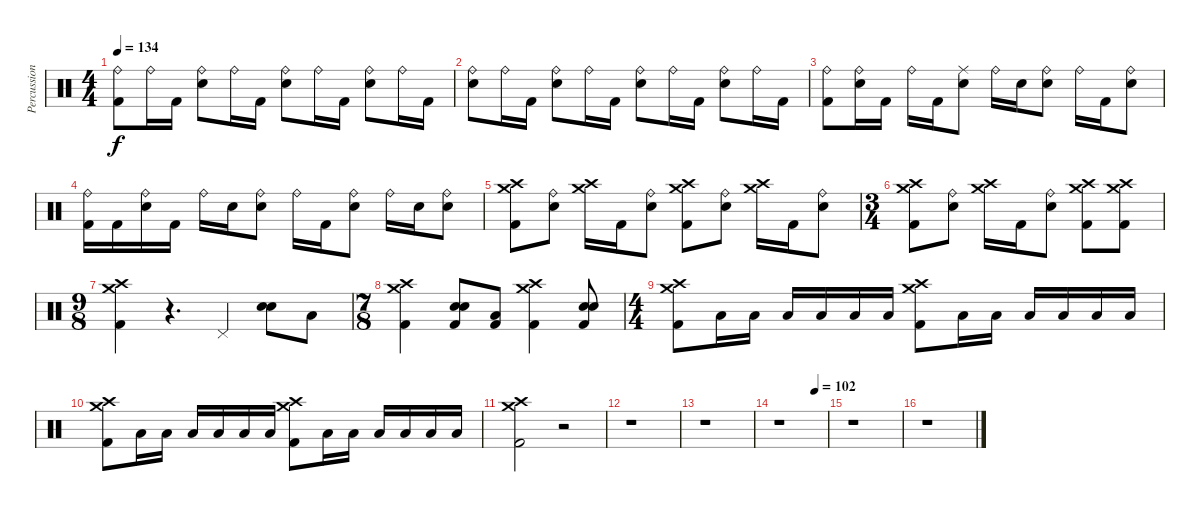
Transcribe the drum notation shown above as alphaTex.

\track ("Percussion" "Percussion") {instrument percussion}
\staff {score}
\articulation defaults
\ts (4 4)
\tempo 134
\clef neutral
\ks c
("Ride (bell)" "Kick (hit) 2").8{dy f} "Ride (bell)".16 "Kick (hit) 2".16 ("Ride (bell)" "Snare (hit) 2").8 "Ride (bell)".16 "Kick (hit) 2".16 ("Ride (bell)" "Snare (hit) 2").8 "Ride (bell)".16 "Kick (hit) 2".16 ("Ride (bell)" "Snare (hit) 2").8 "Ride (bell)".16 "Kick (hit) 2".16 |
("Ride (bell)" "Snare (hit) 2").8 "Ride (bell)".16 "Kick (hit) 2".16 ("Ride (bell)" "Snare (hit) 2").8 "Ride (bell)".16 "Kick (hit) 2".16 ("Ride (bell)" "Snare (hit) 2").8 "Ride (bell)".16 "Kick (hit) 2".16 ("Ride (bell)" "Snare (hit) 2").8 "Ride (bell)".16 "Kick (hit) 2".16 |
("Ride (bell)" "Kick (hit) 2").8 ("Ride (bell)" "Snare (hit) 2").16 "Kick (hit) 2".16 "Ride (bell)".16 "Kick (hit) 2".16 ("Ride (middle)" "Snare (hit) 2").8 "Ride (bell)".16 "Snare (hit) 2".16 ("Ride (bell)" "Snare (hit) 2").8 "Ride (bell)".16 "Kick (hit) 2".16 ("Ride (bell)" "Snare (hit) 2").8 |
("Ride (bell)" "Kick (hit) 2").16 "Kick (hit) 2".16 ("Ride (bell)" "Snare (hit) 2").16 "Kick (hit) 2".16 "Ride (bell)".16 "Snare (hit) 2".16 ("Ride (bell)" "Snare (hit) 2").8 "Ride (bell)".16 "Kick (hit) 2".16 ("Ride (bell)" "Snare (hit) 2").8 "Ride (bell)".16 "Snare (hit) 2".16 ("Ride (bell)" "Snare (hit) 2").8 |
("Crash high (hit)" "Crash medium (hit)" "Kick (hit) 2").8 ("Ride (bell)" "Snare (hit) 2").8 ("Crash high (hit)" "Crash medium (hit)").16 "Kick (hit) 2".16 ("Ride (bell)" "Snare (hit) 2").8 ("Crash high (hit)" "Crash medium (hit)" "Kick (hit) 2").8 ("Ride (bell)" "Snare (hit) 2").8 ("Crash high (hit)" "Crash medium (hit)").16 "Kick (hit) 2".16 ("Ride (bell)" "Snare (hit) 2").8 |
\ts (3 4)
("Crash high (hit)" "Crash medium (hit)" "Kick (hit) 2").8 ("Ride (bell)" "Snare (hit) 2").8 ("Crash high (hit)" "Crash medium (hit)").16 "Kick (hit) 2".16 ("Ride (bell)" "Snare (hit) 2").8 ("Crash high (hit)" "Crash medium (hit)" "Kick (hit) 2").8 ("Crash high (hit)" "Crash medium (hit)" "Kick (hit) 2").8 |
\ts (9 8)
("Crash high (hit)" "Crash medium (hit)" "Kick (hit) 2").4 r.4{d} "Pedal Hi-Hat (hit)".4 ("Snare (hit) 2" "Electric Snare (hit)").8 "Low Tom (hit)".8 |
\ts (7 8)
("Crash high (hit)" "Crash medium (hit)" "Kick (hit) 2").4 ("Snare (hit) 2" "Electric Snare (hit)" "Kick (hit) 2").8 ("Low Tom (hit)" "Kick (hit) 2").8 ("Crash high (hit)" "Crash medium (hit)" "Kick (hit) 2").4 ("Snare (hit) 2" "Electric Snare (hit)" "Kick (hit) 2").8 |
\ts (4 4)
("Crash high (hit)" "Crash medium (hit)" "Kick (hit) 2").8 "Low Floor Tom (hit)".16 "Low Floor Tom (hit)".16 "Low Floor Tom (hit)".16 "Low Floor Tom (hit)".16 "Low Floor Tom (hit)".16 "Low Floor Tom (hit)".16 ("Crash high (hit)" "Crash medium (hit)" "Kick (hit) 2").8 "Low Floor Tom (hit)".16 "Low Floor Tom (hit)".16 "Low Floor Tom (hit)".16 "Low Floor Tom (hit)".16 "Low Floor Tom (hit)".16 "Low Floor Tom (hit)".16 |
("Crash high (hit)" "Crash medium (hit)" "Kick (hit) 2").8 "Low Floor Tom (hit)".16 "Low Floor Tom (hit)".16 "Low Floor Tom (hit)".16 "Low Floor Tom (hit)".16 "Low Floor Tom (hit)".16 "Low Floor Tom (hit)".16 ("Crash high (hit)" "Crash medium (hit)" "Kick (hit) 2").8 "Low Floor Tom (hit)".16 "Low Floor Tom (hit)".16 "Low Floor Tom (hit)".16 "Low Floor Tom (hit)".16 "Low Floor Tom (hit)".16 "Low Floor Tom (hit)".16 |
("Crash high (hit)" "Crash medium (hit)" "Kick (hit) 2").2 r.2 |
r.1 |
r.1 |
\tempo (102 0.75)
r.1 |
r.1 |
r.1
